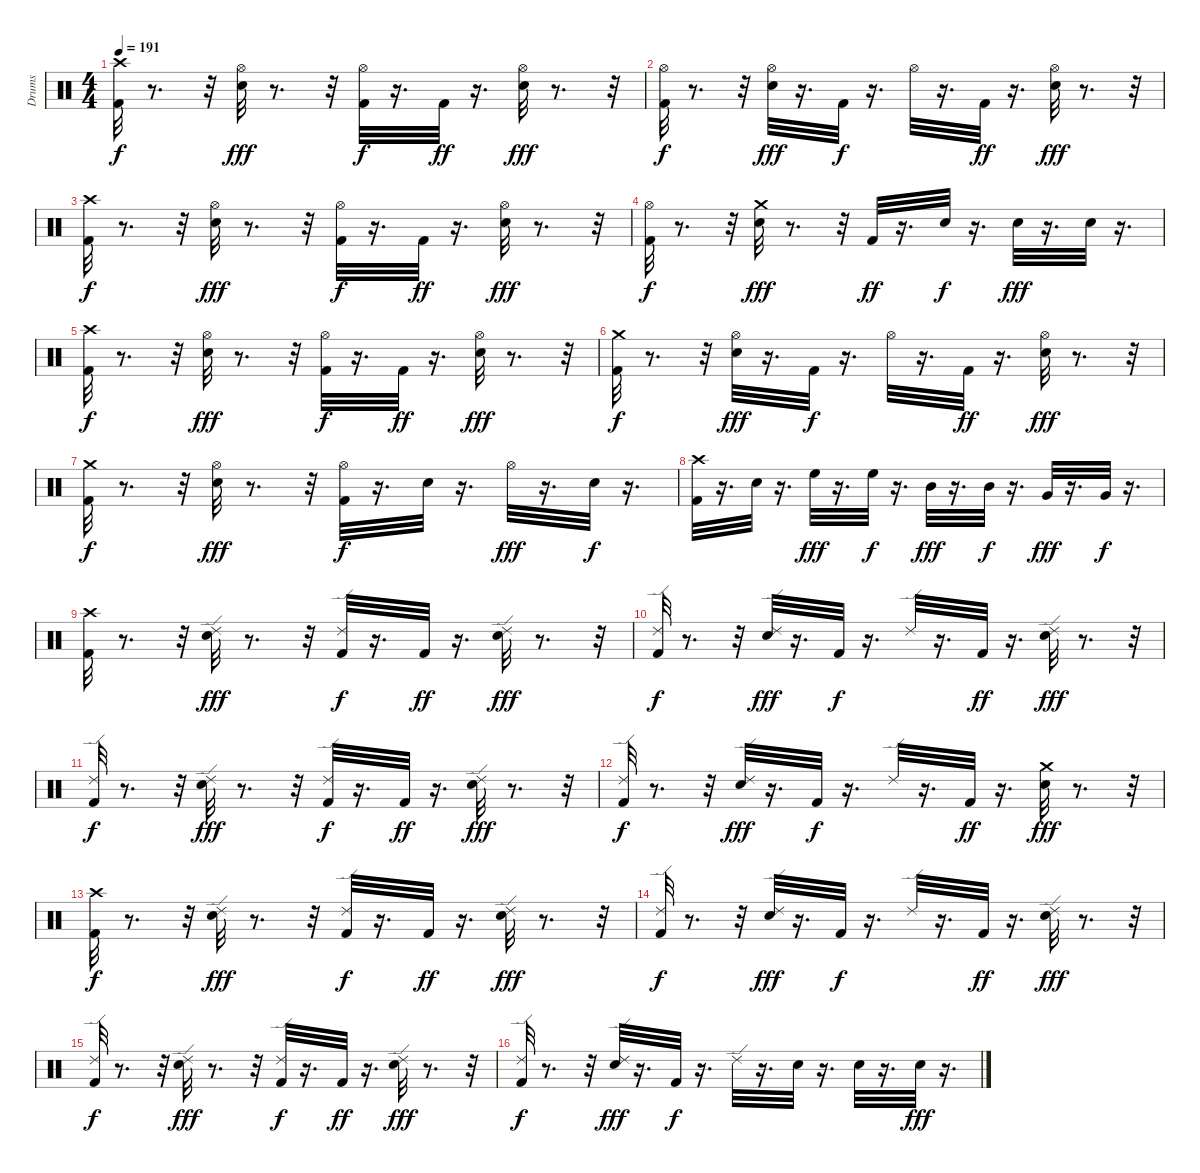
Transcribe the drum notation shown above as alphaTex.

\track ("Drums" "Drums") {instrument percussion}
\staff {score}
\articulation defaults
\ts (4 4)
\tempo 191
\clef neutral
\ks c
("Crash high (hit)" "Kick (hit) 2").32{dy f} r.8{d} r.32 ("Snare (hit) 2" "Hi-Hat (open)").32{dy fff} r.8{d} r.32 ("Kick (hit) 2" "Hi-Hat (open)").32{dy f} r.16{d} "Kick (hit) 2".32{dy ff} r.16{d} ("Snare (hit) 2" "Hi-Hat (open)").32{dy fff} r.8{d} r.32 |
("Kick (hit) 2" "Hi-Hat (open)").32{dy f} r.8{d} r.32 ("Snare (hit) 2" "Hi-Hat (open)").32{dy fff} r.16{d} "Kick (hit) 2".32{dy f} r.16{d} "Hi-Hat (open)".32 r.16{d} "Kick (hit) 2".32{dy ff} r.16{d} ("Snare (hit) 2" "Hi-Hat (open)").32{dy fff} r.8{d} r.32 |
("Crash high (hit)" "Kick (hit) 2").32{dy f} r.8{d} r.32 ("Snare (hit) 2" "Hi-Hat (open)").32{dy fff} r.8{d} r.32 ("Kick (hit) 2" "Hi-Hat (open)").32{dy f} r.16{d} "Kick (hit) 2".32{dy ff} r.16{d} ("Snare (hit) 2" "Hi-Hat (open)").32{dy fff} r.8{d} r.32 |
("Kick (hit) 2" "Hi-Hat (open)").32{dy f} r.8{d} r.32 ("Snare (hit) 2" "Crash medium (hit)").32{dy fff} r.8{d} r.32 "Kick (hit) 2".32{dy ff} r.16{d} "Snare (hit) 2".32{dy f} r.16{d} "Snare (hit) 2".32{dy fff} r.16{d} "Snare (hit) 2".32 r.16{d} |
("Crash high (hit)" "Kick (hit) 2").32{dy f} r.8{d} r.32 ("Snare (hit) 2" "Hi-Hat (open)").32{dy fff} r.8{d} r.32 ("Kick (hit) 2" "Hi-Hat (open)").32{dy f} r.16{d} "Kick (hit) 2".32{dy ff} r.16{d} ("Snare (hit) 2" "Hi-Hat (open)").32{dy fff} r.8{d} r.32 |
("Kick (hit) 2" "Crash medium (hit)").32{dy f} r.8{d} r.32 ("Snare (hit) 2" "Hi-Hat (open)").32{dy fff} r.16{d} "Kick (hit) 2".32{dy f} r.16{d} "Hi-Hat (open)".32 r.16{d} "Kick (hit) 2".32{dy ff} r.16{d} ("Snare (hit) 2" "Hi-Hat (open)").32{dy fff} r.8{d} r.32 |
("Kick (hit) 2" "Crash medium (hit)").32{dy f} r.8{d} r.32 ("Hi-Hat (open)" "Snare (hit) 2").32{dy fff} r.8{d} r.32 ("Kick (hit) 2" "Hi-Hat (open)").32{dy f} r.16{d} "Snare (hit) 2".32 r.16{d} "Hi-Hat (open)".32{dy fff} r.16{d} "Snare (hit) 2".32{dy f} r.16{d} |
("Crash high (hit)" "Kick (hit) 2").32 r.16{d} "Snare (hit) 2".32 r.16{d} "High Floor Tom (hit)".32{dy fff} r.16{d} "High Floor Tom (hit)".32{dy f} r.16{d} "Mid Tom (hit)".32{dy fff} r.16{d} "Mid Tom (hit)".32{dy f} r.16{d} "Very Low Tom (hit)".32{dy fff} r.16{d} "Very Low Tom (hit)".32{dy f} r.16{d} |
("Crash high (hit)" "Kick (hit) 2").32 r.8{d} r.32 ("Snare (hit) 2" "Ride (edge) 2").32{dy fff} r.8{d} r.32 ("Kick (hit) 2" "Ride (edge) 2").32{dy f} r.16{d} "Kick (hit) 2".32{dy ff} r.16{d} ("Snare (hit) 2" "Ride (edge) 2").32{dy fff} r.8{d} r.32 |
("Kick (hit) 2" "Ride (edge) 2").32{dy f} r.8{d} r.32 ("Snare (hit) 2" "Ride (edge) 2").32{dy fff} r.16{d} "Kick (hit) 2".32{dy f} r.16{d} "Ride (edge) 2".32 r.16{d} "Kick (hit) 2".32{dy ff} r.16{d} ("Snare (hit) 2" "Ride (edge) 2").32{dy fff} r.8{d} r.32 |
("Kick (hit) 2" "Ride (edge) 2").32{dy f} r.8{d} r.32 ("Snare (hit) 2" "Ride (edge) 2").32{dy fff} r.8{d} r.32 ("Kick (hit) 2" "Ride (edge) 2").32{dy f} r.16{d} "Kick (hit) 2".32{dy ff} r.16{d} ("Snare (hit) 2" "Ride (edge) 2").32{dy fff} r.8{d} r.32 |
("Kick (hit) 2" "Ride (edge) 2").32{dy f} r.8{d} r.32 ("Snare (hit) 2" "Ride (edge) 2").32{dy fff} r.16{d} "Kick (hit) 2".32{dy f} r.16{d} "Ride (edge) 2".32 r.16{d} "Kick (hit) 2".32{dy ff} r.16{d} ("Snare (hit) 2" "Crash medium (hit)").32{dy fff} r.8{d} r.32 |
("Crash high (hit)" "Kick (hit) 2").32{dy f} r.8{d} r.32 ("Snare (hit) 2" "Ride (edge) 2").32{dy fff} r.8{d} r.32 ("Kick (hit) 2" "Ride (edge) 2").32{dy f} r.16{d} "Kick (hit) 2".32{dy ff} r.16{d} ("Snare (hit) 2" "Ride (edge) 2").32{dy fff} r.8{d} r.32 |
("Kick (hit) 2" "Ride (edge) 2").32{dy f} r.8{d} r.32 ("Snare (hit) 2" "Ride (edge) 2").32{dy fff} r.16{d} "Kick (hit) 2".32{dy f} r.16{d} "Ride (edge) 2".32 r.16{d} "Kick (hit) 2".32{dy ff} r.16{d} ("Snare (hit) 2" "Ride (edge) 2").32{dy fff} r.8{d} r.32 |
("Kick (hit) 2" "Ride (edge) 2").32{dy f} r.8{d} r.32 ("Snare (hit) 2" "Ride (edge) 2").32{dy fff} r.8{d} r.32 ("Kick (hit) 2" "Ride (edge) 2").32{dy f} r.16{d} "Kick (hit) 2".32{dy ff} r.16{d} ("Snare (hit) 2" "Ride (edge) 2").32{dy fff} r.8{d} r.32 |
("Kick (hit) 2" "Ride (edge) 2").32{dy f} r.8{d} r.32 ("Snare (hit) 2" "Ride (edge) 2").32{dy fff} r.16{d} "Kick (hit) 2".32{dy f} r.16{d} "Ride (edge) 2".32 r.16{d} "Snare (hit) 2".32 r.16{d} "Snare (hit) 2".32 r.16{d} "Snare (hit) 2".32{dy fff} r.16{d}
